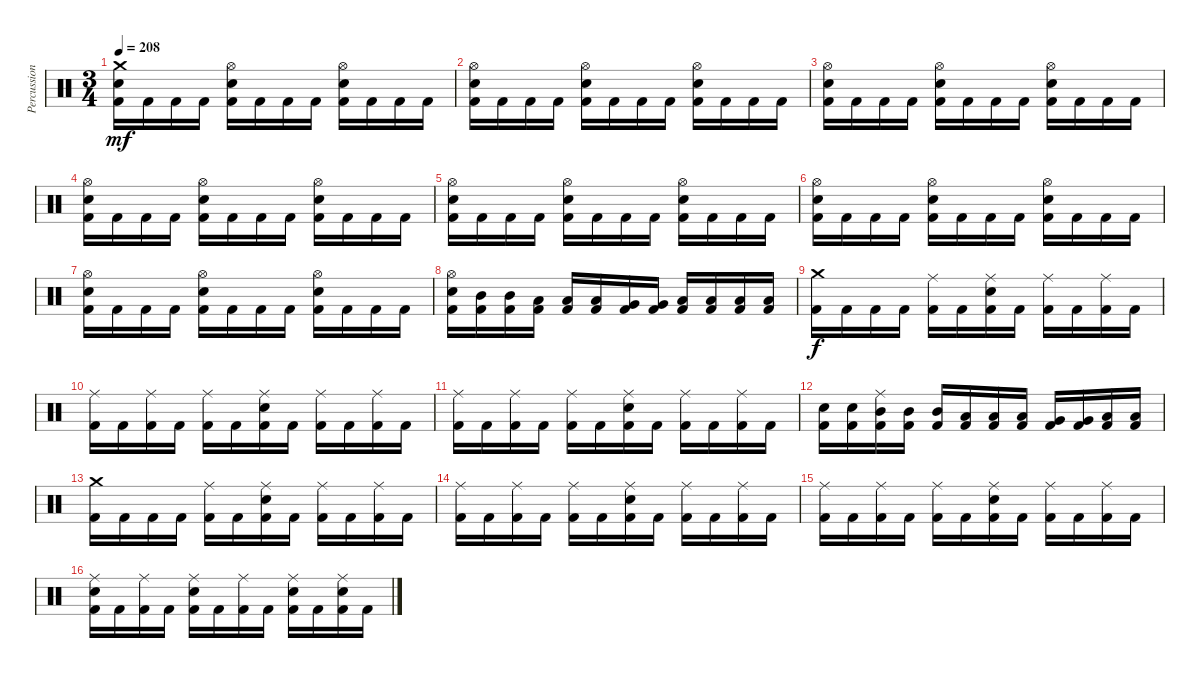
\track ("Percussion" "Percussion") {instrument percussion}
\staff {score}
\articulation defaults
\ts (3 4)
\tempo 208
\clef neutral
\ks c
("Crash medium (hit)" "Electric Snare (hit)" "Kick (hit) 2").16{dy mf} "Kick (hit) 2".16 "Kick (hit) 2".16 "Kick (hit) 2".16 ("Hi-Hat (open)" "Electric Snare (hit)" "Kick (hit) 2").16 "Kick (hit) 2".16 "Kick (hit) 2".16 "Kick (hit) 2".16 ("Hi-Hat (open)" "Electric Snare (hit)" "Kick (hit) 2").16 "Kick (hit) 2".16 "Kick (hit) 2".16 "Kick (hit) 2".16 |
("Hi-Hat (open)" "Electric Snare (hit)" "Kick (hit) 2").16 "Kick (hit) 2".16 "Kick (hit) 2".16 "Kick (hit) 2".16 ("Hi-Hat (open)" "Electric Snare (hit)" "Kick (hit) 2").16 "Kick (hit) 2".16 "Kick (hit) 2".16 "Kick (hit) 2".16 ("Hi-Hat (open)" "Electric Snare (hit)" "Kick (hit) 2").16 "Kick (hit) 2".16 "Kick (hit) 2".16 "Kick (hit) 2".16 |
("Hi-Hat (open)" "Electric Snare (hit)" "Kick (hit) 2").16 "Kick (hit) 2".16 "Kick (hit) 2".16 "Kick (hit) 2".16 ("Hi-Hat (open)" "Electric Snare (hit)" "Kick (hit) 2").16 "Kick (hit) 2".16 "Kick (hit) 2".16 "Kick (hit) 2".16 ("Hi-Hat (open)" "Electric Snare (hit)" "Kick (hit) 2").16 "Kick (hit) 2".16 "Kick (hit) 2".16 "Kick (hit) 2".16 |
("Hi-Hat (open)" "Electric Snare (hit)" "Kick (hit) 2").16 "Kick (hit) 2".16 "Kick (hit) 2".16 "Kick (hit) 2".16 ("Hi-Hat (open)" "Electric Snare (hit)" "Kick (hit) 2").16 "Kick (hit) 2".16 "Kick (hit) 2".16 "Kick (hit) 2".16 ("Hi-Hat (open)" "Electric Snare (hit)" "Kick (hit) 2").16 "Kick (hit) 2".16 "Kick (hit) 2".16 "Kick (hit) 2".16 |
("Hi-Hat (open)" "Electric Snare (hit)" "Kick (hit) 2").16 "Kick (hit) 2".16 "Kick (hit) 2".16 "Kick (hit) 2".16 ("Hi-Hat (open)" "Electric Snare (hit)" "Kick (hit) 2").16 "Kick (hit) 2".16 "Kick (hit) 2".16 "Kick (hit) 2".16 ("Hi-Hat (open)" "Electric Snare (hit)" "Kick (hit) 2").16 "Kick (hit) 2".16 "Kick (hit) 2".16 "Kick (hit) 2".16 |
("Hi-Hat (open)" "Electric Snare (hit)" "Kick (hit) 2").16 "Kick (hit) 2".16 "Kick (hit) 2".16 "Kick (hit) 2".16 ("Hi-Hat (open)" "Electric Snare (hit)" "Kick (hit) 2").16 "Kick (hit) 2".16 "Kick (hit) 2".16 "Kick (hit) 2".16 ("Hi-Hat (open)" "Electric Snare (hit)" "Kick (hit) 2").16 "Kick (hit) 2".16 "Kick (hit) 2".16 "Kick (hit) 2".16 |
("Hi-Hat (open)" "Electric Snare (hit)" "Kick (hit) 2").16 "Kick (hit) 2".16 "Kick (hit) 2".16 "Kick (hit) 2".16 ("Hi-Hat (open)" "Electric Snare (hit)" "Kick (hit) 2").16 "Kick (hit) 2".16 "Kick (hit) 2".16 "Kick (hit) 2".16 ("Hi-Hat (open)" "Electric Snare (hit)" "Kick (hit) 2").16 "Kick (hit) 2".16 "Kick (hit) 2".16 "Kick (hit) 2".16 |
("Hi-Hat (open)" "Electric Snare (hit)" "Kick (hit) 2").16 ("Mid Tom (hit)" "Kick (hit) 2").16 ("Mid Tom (hit)" "Kick (hit) 2").16 ("Low Tom (hit)" "Kick (hit) 2").16 ("Low Tom (hit)" "Kick (hit) 2").16 ("Low Tom (hit)" "Kick (hit) 2").16 ("Very Low Tom (hit)" "Kick (hit) 2").16 ("Very Low Tom (hit)" "Kick (hit) 2").16 ("Low Floor Tom (hit)" "Kick (hit) 2").16 ("Low Floor Tom (hit)" "Kick (hit) 2").16 ("Low Floor Tom (hit)" "Kick (hit) 2").16 ("Low Floor Tom (hit)" "Kick (hit) 2").16 |
("Crash medium (hit)" "Kick (hit) 2").16{dy f} "Kick (hit) 2".16 "Kick (hit) 2".16 "Kick (hit) 2".16 ("Ride (middle)" "Kick (hit) 2").16 "Kick (hit) 2".16 ("Ride (middle)" "Electric Snare (hit)" "Kick (hit) 2").16 "Kick (hit) 2".16 ("Ride (middle)" "Kick (hit) 2").16 "Kick (hit) 2".16 ("Ride (middle)" "Kick (hit) 2").16 "Kick (hit) 2".16 |
("Ride (middle)" "Kick (hit) 2").16 "Kick (hit) 2".16 ("Ride (middle)" "Kick (hit) 2").16 "Kick (hit) 2".16 ("Ride (middle)" "Kick (hit) 2").16 "Kick (hit) 2".16 ("Ride (middle)" "Electric Snare (hit)" "Kick (hit) 2").16 "Kick (hit) 2".16 ("Ride (middle)" "Kick (hit) 2").16 "Kick (hit) 2".16 ("Ride (middle)" "Kick (hit) 2").16 "Kick (hit) 2".16 |
("Ride (middle)" "Kick (hit) 2").16 "Kick (hit) 2".16 ("Ride (middle)" "Kick (hit) 2").16 "Kick (hit) 2".16 ("Ride (middle)" "Kick (hit) 2").16 "Kick (hit) 2".16 ("Ride (middle)" "Electric Snare (hit)" "Kick (hit) 2").16 "Kick (hit) 2".16 ("Ride (middle)" "Kick (hit) 2").16 "Kick (hit) 2".16 ("Ride (middle)" "Kick (hit) 2").16 "Kick (hit) 2".16 |
("Electric Snare (hit)" "Kick (hit) 2").16 ("Electric Snare (hit)" "Kick (hit) 2").16 ("Ride (middle)" "Mid Tom (hit)" "Kick (hit) 2").16 ("Mid Tom (hit)" "Kick (hit) 2").16 ("Mid Tom (hit)" "Kick (hit) 2").16 ("Low Tom (hit)" "Kick (hit) 2").16 ("Low Tom (hit)" "Kick (hit) 2").16 ("Low Tom (hit)" "Kick (hit) 2").16 ("Very Low Tom (hit)" "Kick (hit) 2").16 ("Very Low Tom (hit)" "Kick (hit) 2").16 ("Low Floor Tom (hit)" "Kick (hit) 2").16 ("Low Floor Tom (hit)" "Kick (hit) 2").16 |
("Crash medium (hit)" "Kick (hit) 2").16 "Kick (hit) 2".16 "Kick (hit) 2".16 "Kick (hit) 2".16 ("Ride (middle)" "Kick (hit) 2").16 "Kick (hit) 2".16 ("Ride (middle)" "Electric Snare (hit)" "Kick (hit) 2").16 "Kick (hit) 2".16 ("Ride (middle)" "Kick (hit) 2").16 "Kick (hit) 2".16 ("Ride (middle)" "Kick (hit) 2").16 "Kick (hit) 2".16 |
("Ride (middle)" "Kick (hit) 2").16 "Kick (hit) 2".16 ("Ride (middle)" "Kick (hit) 2").16 "Kick (hit) 2".16 ("Ride (middle)" "Kick (hit) 2").16 "Kick (hit) 2".16 ("Ride (middle)" "Electric Snare (hit)" "Kick (hit) 2").16 "Kick (hit) 2".16 ("Ride (middle)" "Kick (hit) 2").16 "Kick (hit) 2".16 ("Ride (middle)" "Kick (hit) 2").16 "Kick (hit) 2".16 |
("Ride (middle)" "Kick (hit) 2").16 "Kick (hit) 2".16 ("Ride (middle)" "Kick (hit) 2").16 "Kick (hit) 2".16 ("Ride (middle)" "Kick (hit) 2").16 "Kick (hit) 2".16 ("Ride (middle)" "Electric Snare (hit)" "Kick (hit) 2").16 "Kick (hit) 2".16 ("Ride (middle)" "Kick (hit) 2").16 "Kick (hit) 2".16 ("Ride (middle)" "Kick (hit) 2").16 "Kick (hit) 2".16 |
("Ride (middle)" "Electric Snare (hit)" "Kick (hit) 2").16 "Kick (hit) 2".16 ("Ride (middle)" "Kick (hit) 2").16 "Kick (hit) 2".16 ("Ride (middle)" "Electric Snare (hit)" "Kick (hit) 2").16 "Kick (hit) 2".16 ("Ride (middle)" "Kick (hit) 2").16 "Kick (hit) 2".16 ("Ride (middle)" "Electric Snare (hit)" "Kick (hit) 2").16 "Kick (hit) 2".16 ("Ride (middle)" "Electric Snare (hit)" "Kick (hit) 2").16 "Kick (hit) 2".16
